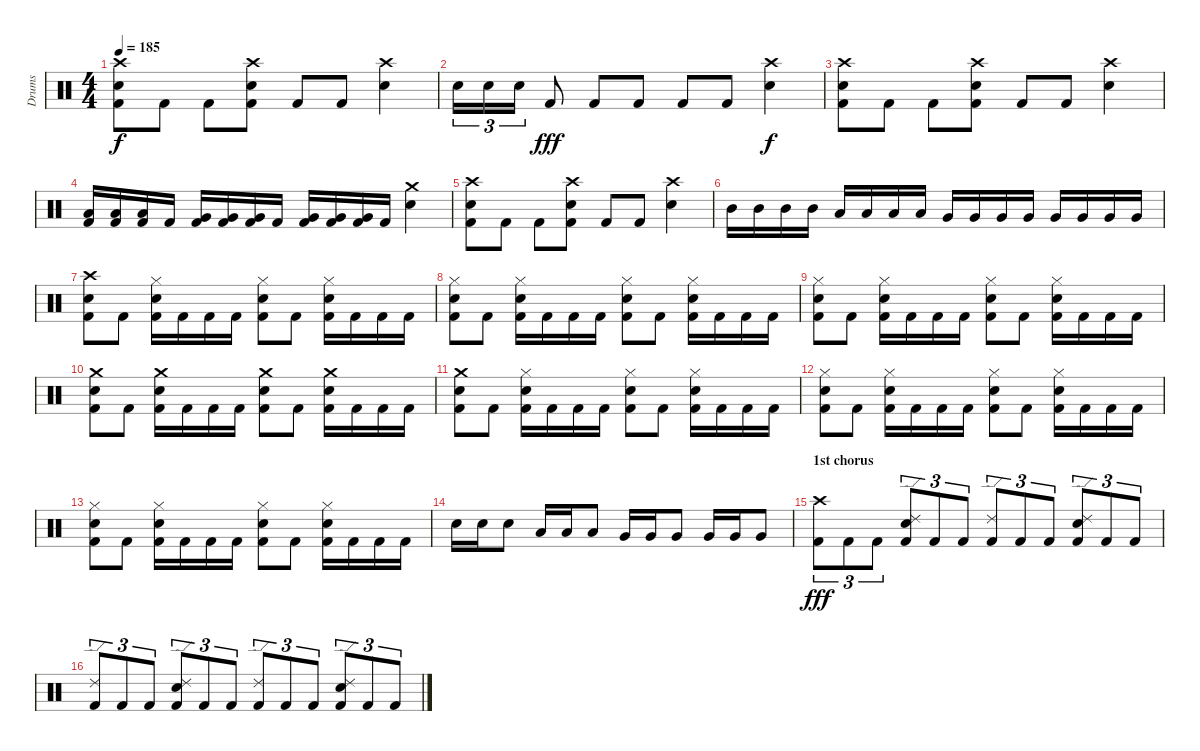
\track ("Drums" "Drums") {instrument percussion}
\staff {score}
\articulation defaults
\ts (4 4)
\tempo 185
\clef neutral
\ks c
("Snare (hit) 2" "Kick (hit) 2" "Crash high (hit)").8{dy f} "Kick (hit) 2".8 "Kick (hit) 2".8 ("Snare (hit) 2" "Kick (hit) 2" "Crash high (hit)").8 "Kick (hit) 2".8 "Kick (hit) 2".8 ("Snare (hit) 2" "Crash high (hit)").4 |
"Snare (hit) 2".16{tu (3 2)} "Snare (hit) 2".16{tu (3 2)} "Snare (hit) 2".16{tu (3 2)} "Kick (hit) 2".8{dy fff} "Kick (hit) 2".8 "Kick (hit) 2".8 "Kick (hit) 2".8 "Kick (hit) 2".8 ("Snare (hit) 2" "Crash high (hit)").4{dy f} |
("Snare (hit) 2" "Kick (hit) 2" "Crash high (hit)").8 "Kick (hit) 2".8 "Kick (hit) 2".8 ("Snare (hit) 2" "Kick (hit) 2" "Crash high (hit)").8 "Kick (hit) 2".8 "Kick (hit) 2".8 ("Snare (hit) 2" "Crash high (hit)").4 |
("Kick (hit) 2" "Low Tom (hit)").16 ("Kick (hit) 2" "Low Tom (hit)").16 ("Kick (hit) 2" "Low Tom (hit)").16 "Kick (hit) 2".16 ("Kick (hit) 2" "Very Low Tom (hit)").16 ("Kick (hit) 2" "Very Low Tom (hit)").16 ("Kick (hit) 2" "Very Low Tom (hit)").16 "Kick (hit) 2".16 ("Kick (hit) 2" "Very Low Tom (hit)").16 ("Kick (hit) 2" "Very Low Tom (hit)").16 ("Kick (hit) 2" "Very Low Tom (hit)").16 "Kick (hit) 2".16 ("Snare (hit) 2" "Crash medium (hit)").4 |
("Snare (hit) 2" "Kick (hit) 2" "Crash high (hit)").8 "Kick (hit) 2".8 "Kick (hit) 2".8 ("Snare (hit) 2" "Kick (hit) 2" "Crash high (hit)").8 "Kick (hit) 2".8 "Kick (hit) 2".8 ("Snare (hit) 2" "Crash high (hit)").4 |
"Mid Tom (hit)".16 "Mid Tom (hit)".16 "Mid Tom (hit)".16 "Mid Tom (hit)".16 "Low Tom (hit)".16 "Low Tom (hit)".16 "Low Tom (hit)".16 "Low Tom (hit)".16 "Very Low Tom (hit)".16 "Very Low Tom (hit)".16 "Very Low Tom (hit)".16 "Very Low Tom (hit)".16 "Very Low Tom (hit)".16 "Very Low Tom (hit)".16 "Very Low Tom (hit)".16 "Very Low Tom (hit)".16 |
("Kick (hit) 2" "Snare (hit) 2" "Crash high (hit)").8 "Kick (hit) 2".8 ("Kick (hit) 2" "Snare (hit) 2" "Hi-Hat (closed)").16 "Kick (hit) 2".16 "Kick (hit) 2".16 "Kick (hit) 2".16 ("Kick (hit) 2" "Snare (hit) 2" "Hi-Hat (closed)").8 "Kick (hit) 2".8 ("Kick (hit) 2" "Snare (hit) 2" "Hi-Hat (closed)").16 "Kick (hit) 2".16 "Kick (hit) 2".16 "Kick (hit) 2".16 |
("Kick (hit) 2" "Snare (hit) 2" "Hi-Hat (closed)").8 "Kick (hit) 2".8 ("Kick (hit) 2" "Snare (hit) 2" "Hi-Hat (closed)").16 "Kick (hit) 2".16 "Kick (hit) 2".16 "Kick (hit) 2".16 ("Kick (hit) 2" "Snare (hit) 2" "Hi-Hat (closed)").8 "Kick (hit) 2".8 ("Kick (hit) 2" "Snare (hit) 2" "Hi-Hat (closed)").16 "Kick (hit) 2".16 "Kick (hit) 2".16 "Kick (hit) 2".16 |
("Kick (hit) 2" "Snare (hit) 2" "Hi-Hat (closed)").8 "Kick (hit) 2".8 ("Kick (hit) 2" "Snare (hit) 2" "Hi-Hat (closed)").16 "Kick (hit) 2".16 "Kick (hit) 2".16 "Kick (hit) 2".16 ("Kick (hit) 2" "Snare (hit) 2" "Hi-Hat (closed)").8 "Kick (hit) 2".8 ("Kick (hit) 2" "Snare (hit) 2" "Hi-Hat (closed)").16 "Kick (hit) 2".16 "Kick (hit) 2".16 "Kick (hit) 2".16 |
("Kick (hit) 2" "Snare (hit) 2" "Crash medium (hit)").8 "Kick (hit) 2".8 ("Kick (hit) 2" "Snare (hit) 2" "Crash medium (hit)").16 "Kick (hit) 2".16 "Kick (hit) 2".16 "Kick (hit) 2".16 ("Kick (hit) 2" "Snare (hit) 2" "Crash medium (hit)").8 "Kick (hit) 2".8 ("Kick (hit) 2" "Snare (hit) 2" "Crash medium (hit)").16 "Kick (hit) 2".16 "Kick (hit) 2".16 "Kick (hit) 2".16 |
("Kick (hit) 2" "Snare (hit) 2" "Crash medium (hit)").8 "Kick (hit) 2".8 ("Kick (hit) 2" "Snare (hit) 2" "Hi-Hat (closed)").16 "Kick (hit) 2".16 "Kick (hit) 2".16 "Kick (hit) 2".16 ("Kick (hit) 2" "Snare (hit) 2" "Hi-Hat (closed)").8 "Kick (hit) 2".8 ("Kick (hit) 2" "Snare (hit) 2" "Hi-Hat (closed)").16 "Kick (hit) 2".16 "Kick (hit) 2".16 "Kick (hit) 2".16 |
("Kick (hit) 2" "Snare (hit) 2" "Hi-Hat (closed)").8 "Kick (hit) 2".8 ("Kick (hit) 2" "Snare (hit) 2" "Hi-Hat (closed)").16 "Kick (hit) 2".16 "Kick (hit) 2".16 "Kick (hit) 2".16 ("Kick (hit) 2" "Snare (hit) 2" "Hi-Hat (closed)").8 "Kick (hit) 2".8 ("Kick (hit) 2" "Snare (hit) 2" "Hi-Hat (closed)").16 "Kick (hit) 2".16 "Kick (hit) 2".16 "Kick (hit) 2".16 |
("Kick (hit) 2" "Snare (hit) 2" "Hi-Hat (closed)").8 "Kick (hit) 2".8 ("Kick (hit) 2" "Snare (hit) 2" "Hi-Hat (closed)").16 "Kick (hit) 2".16 "Kick (hit) 2".16 "Kick (hit) 2".16 ("Kick (hit) 2" "Snare (hit) 2" "Hi-Hat (closed)").8 "Kick (hit) 2".8 ("Kick (hit) 2" "Snare (hit) 2" "Hi-Hat (closed)").16 "Kick (hit) 2".16 "Kick (hit) 2".16 "Kick (hit) 2".16 |
"Snare (hit) 2".16 "Snare (hit) 2".16 "Snare (hit) 2".8 "Low Tom (hit)".16 "Low Tom (hit)".16 "Low Tom (hit)".8 "Very Low Tom (hit)".16 "Very Low Tom (hit)".16 "Very Low Tom (hit)".8 "Very Low Tom (hit)".16 "Very Low Tom (hit)".16 "Very Low Tom (hit)".8 |
\section ("" "1st chorus")
("Kick (hit) 2" "Crash high (hit)").8{tu (3 2) dy fff} "Kick (hit) 2".8{tu (3 2)} "Kick (hit) 2".8{tu (3 2)} ("Kick (hit) 2" "Snare (hit) 2" "Ride (edge) 2").8{tu (3 2)} "Kick (hit) 2".8{tu (3 2)} "Kick (hit) 2".8{tu (3 2)} ("Kick (hit) 2" "Ride (edge) 2").8{tu (3 2)} "Kick (hit) 2".8{tu (3 2)} "Kick (hit) 2".8{tu (3 2)} ("Kick (hit) 2" "Snare (hit) 2" "Ride (edge) 2").8{tu (3 2)} "Kick (hit) 2".8{tu (3 2)} "Kick (hit) 2".8{tu (3 2)} |
("Kick (hit) 2" "Ride (edge) 2").8{tu (3 2)} "Kick (hit) 2".8{tu (3 2)} "Kick (hit) 2".8{tu (3 2)} ("Kick (hit) 2" "Snare (hit) 2" "Ride (edge) 2").8{tu (3 2)} "Kick (hit) 2".8{tu (3 2)} "Kick (hit) 2".8{tu (3 2)} ("Kick (hit) 2" "Ride (edge) 2").8{tu (3 2)} "Kick (hit) 2".8{tu (3 2)} "Kick (hit) 2".8{tu (3 2)} ("Kick (hit) 2" "Snare (hit) 2" "Ride (edge) 2").8{tu (3 2)} "Kick (hit) 2".8{tu (3 2)} "Kick (hit) 2".8{tu (3 2)}
